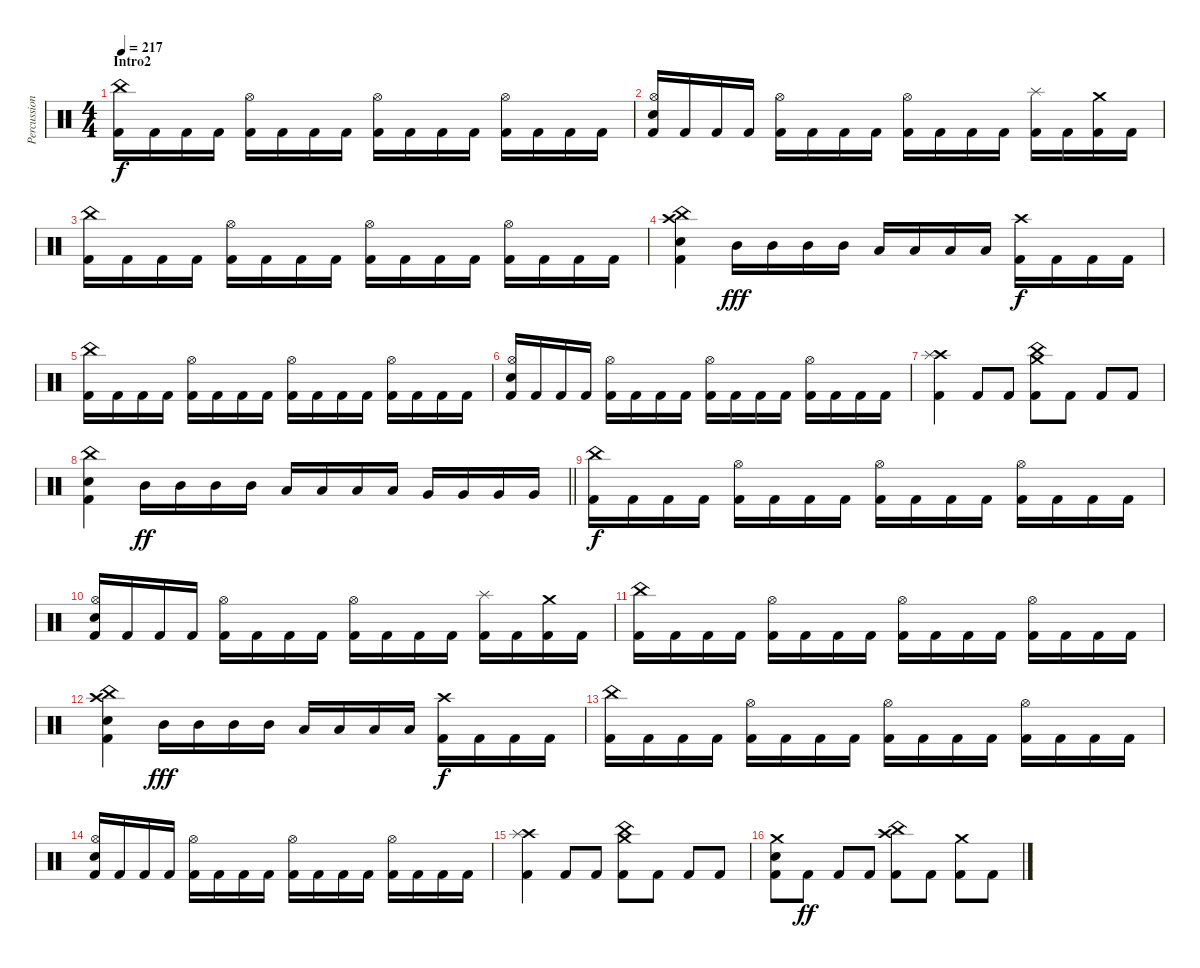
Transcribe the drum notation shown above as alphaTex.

\track ("Percussion" "Percussion") {instrument percussion}
\staff {score}
\articulation defaults
\ts (4 4)
\section ("" "Intro2")
\tempo 217
\clef neutral
\ks c
("China (hit)" "Kick (hit) 2").16{dy f} "Kick (hit) 2".16 "Kick (hit) 2".16 "Kick (hit) 2".16 ("Hi-Hat (open)" "Kick (hit) 2").16 "Kick (hit) 2".16 "Kick (hit) 2".16 "Kick (hit) 2".16 ("Hi-Hat (open)" "Kick (hit) 2").16 "Kick (hit) 2".16 "Kick (hit) 2".16 "Kick (hit) 2".16 ("Hi-Hat (open)" "Kick (hit) 2").16 "Kick (hit) 2".16 "Kick (hit) 2".16 "Kick (hit) 2".16 |
("Hi-Hat (open)" "Electric Snare (hit)" "Kick (hit) 2").16 "Kick (hit) 2".16 "Kick (hit) 2".16 "Kick (hit) 2".16 ("Hi-Hat (open)" "Kick (hit) 2").16 "Kick (hit) 2".16 "Kick (hit) 2".16 "Kick (hit) 2".16 ("Hi-Hat (open)" "Kick (hit) 2").16 "Kick (hit) 2".16 "Kick (hit) 2".16 "Kick (hit) 2".16 ("Splash (hit)" "Kick (hit) 2").16 "Kick (hit) 2".16 ("Crash medium (hit)" "Kick (hit) 2").16 "Kick (hit) 2".16 |
("China (hit)" "Kick (hit) 2").16 "Kick (hit) 2".16 "Kick (hit) 2".16 "Kick (hit) 2".16 ("Hi-Hat (open)" "Kick (hit) 2").16 "Kick (hit) 2".16 "Kick (hit) 2".16 "Kick (hit) 2".16 ("Hi-Hat (open)" "Kick (hit) 2").16 "Kick (hit) 2".16 "Kick (hit) 2".16 "Kick (hit) 2".16 ("Hi-Hat (open)" "Kick (hit) 2").16 "Kick (hit) 2".16 "Kick (hit) 2".16 "Kick (hit) 2".16 |
("Crash high (hit)" "China (hit)" "Electric Snare (hit)" "Kick (hit) 2").4 "Mid Tom (hit)".16{dy fff} "Mid Tom (hit)".16 "Mid Tom (hit)".16 "Mid Tom (hit)".16 "Low Tom (hit)".16 "Low Tom (hit)".16 "Low Tom (hit)".16 "Low Tom (hit)".16 ("Crash high (hit)" "Kick (hit) 2").16{dy f} "Kick (hit) 2".16 "Kick (hit) 2".16 "Kick (hit) 2".16 |
("China (hit)" "Kick (hit) 2").16 "Kick (hit) 2".16 "Kick (hit) 2".16 "Kick (hit) 2".16 ("Hi-Hat (open)" "Kick (hit) 2").16 "Kick (hit) 2".16 "Kick (hit) 2".16 "Kick (hit) 2".16 ("Hi-Hat (open)" "Kick (hit) 2").16 "Kick (hit) 2".16 "Kick (hit) 2".16 "Kick (hit) 2".16 ("Hi-Hat (open)" "Kick (hit) 2").16 "Kick (hit) 2".16 "Kick (hit) 2".16 "Kick (hit) 2".16 |
("Hi-Hat (open)" "Electric Snare (hit)" "Kick (hit) 2").16 "Kick (hit) 2".16 "Kick (hit) 2".16 "Kick (hit) 2".16 ("Hi-Hat (open)" "Kick (hit) 2").16 "Kick (hit) 2".16 "Kick (hit) 2".16 "Kick (hit) 2".16 ("Hi-Hat (open)" "Kick (hit) 2").16 "Kick (hit) 2".16 "Kick (hit) 2".16 "Kick (hit) 2".16 ("Hi-Hat (open)" "Kick (hit) 2").16 "Kick (hit) 2".16 "Kick (hit) 2".16 "Kick (hit) 2".16 |
("Crash high (hit)" "Splash (hit)" "Kick (hit) 2").4 "Kick (hit) 2".8 "Kick (hit) 2".8 ("Crash medium (hit)" "China (hit)" "Kick (hit) 2").8 "Kick (hit) 2".8 "Kick (hit) 2".8 "Kick (hit) 2".8 |
\barLineRight lightlight
("China (hit)" "Electric Snare (hit)" "Kick (hit) 2").4 "Mid Tom (hit)".16{dy ff} "Mid Tom (hit)".16 "Mid Tom (hit)".16 "Mid Tom (hit)".16 "Low Tom (hit)".16 "Low Tom (hit)".16 "Low Tom (hit)".16 "Low Tom (hit)".16 "Very Low Tom (hit)".16 "Very Low Tom (hit)".16 "Very Low Tom (hit)".16 "Very Low Tom (hit)".16 |
("China (hit)" "Kick (hit) 2").16{dy f} "Kick (hit) 2".16 "Kick (hit) 2".16 "Kick (hit) 2".16 ("Hi-Hat (open)" "Kick (hit) 2").16 "Kick (hit) 2".16 "Kick (hit) 2".16 "Kick (hit) 2".16 ("Hi-Hat (open)" "Kick (hit) 2").16 "Kick (hit) 2".16 "Kick (hit) 2".16 "Kick (hit) 2".16 ("Hi-Hat (open)" "Kick (hit) 2").16 "Kick (hit) 2".16 "Kick (hit) 2".16 "Kick (hit) 2".16 |
("Hi-Hat (open)" "Electric Snare (hit)" "Kick (hit) 2").16 "Kick (hit) 2".16 "Kick (hit) 2".16 "Kick (hit) 2".16 ("Hi-Hat (open)" "Kick (hit) 2").16 "Kick (hit) 2".16 "Kick (hit) 2".16 "Kick (hit) 2".16 ("Hi-Hat (open)" "Kick (hit) 2").16 "Kick (hit) 2".16 "Kick (hit) 2".16 "Kick (hit) 2".16 ("Splash (hit)" "Kick (hit) 2").16 "Kick (hit) 2".16 ("Crash medium (hit)" "Kick (hit) 2").16 "Kick (hit) 2".16 |
("China (hit)" "Kick (hit) 2").16 "Kick (hit) 2".16 "Kick (hit) 2".16 "Kick (hit) 2".16 ("Hi-Hat (open)" "Kick (hit) 2").16 "Kick (hit) 2".16 "Kick (hit) 2".16 "Kick (hit) 2".16 ("Hi-Hat (open)" "Kick (hit) 2").16 "Kick (hit) 2".16 "Kick (hit) 2".16 "Kick (hit) 2".16 ("Hi-Hat (open)" "Kick (hit) 2").16 "Kick (hit) 2".16 "Kick (hit) 2".16 "Kick (hit) 2".16 |
("Crash high (hit)" "China (hit)" "Electric Snare (hit)" "Kick (hit) 2").4 "Mid Tom (hit)".16{dy fff} "Mid Tom (hit)".16 "Mid Tom (hit)".16 "Mid Tom (hit)".16 "Low Tom (hit)".16 "Low Tom (hit)".16 "Low Tom (hit)".16 "Low Tom (hit)".16 ("Crash high (hit)" "Kick (hit) 2").16{dy f} "Kick (hit) 2".16 "Kick (hit) 2".16 "Kick (hit) 2".16 |
("China (hit)" "Kick (hit) 2").16 "Kick (hit) 2".16 "Kick (hit) 2".16 "Kick (hit) 2".16 ("Hi-Hat (open)" "Kick (hit) 2").16 "Kick (hit) 2".16 "Kick (hit) 2".16 "Kick (hit) 2".16 ("Hi-Hat (open)" "Kick (hit) 2").16 "Kick (hit) 2".16 "Kick (hit) 2".16 "Kick (hit) 2".16 ("Hi-Hat (open)" "Kick (hit) 2").16 "Kick (hit) 2".16 "Kick (hit) 2".16 "Kick (hit) 2".16 |
("Hi-Hat (open)" "Electric Snare (hit)" "Kick (hit) 2").16 "Kick (hit) 2".16 "Kick (hit) 2".16 "Kick (hit) 2".16 ("Hi-Hat (open)" "Kick (hit) 2").16 "Kick (hit) 2".16 "Kick (hit) 2".16 "Kick (hit) 2".16 ("Hi-Hat (open)" "Kick (hit) 2").16 "Kick (hit) 2".16 "Kick (hit) 2".16 "Kick (hit) 2".16 ("Hi-Hat (open)" "Kick (hit) 2").16 "Kick (hit) 2".16 "Kick (hit) 2".16 "Kick (hit) 2".16 |
("Crash high (hit)" "Splash (hit)" "Kick (hit) 2").4 "Kick (hit) 2".8 "Kick (hit) 2".8 ("Crash medium (hit)" "China (hit)" "Kick (hit) 2").8 "Kick (hit) 2".8 "Kick (hit) 2".8 "Kick (hit) 2".8 |
("Crash medium (hit)" "Electric Snare (hit)" "Kick (hit) 2").8 "Kick (hit) 2".8{dy ff} "Kick (hit) 2".8 "Kick (hit) 2".8 ("Crash high (hit)" "China (hit)" "Kick (hit) 2").8 "Kick (hit) 2".8 ("Crash medium (hit)" "Kick (hit) 2").8 "Kick (hit) 2".8
